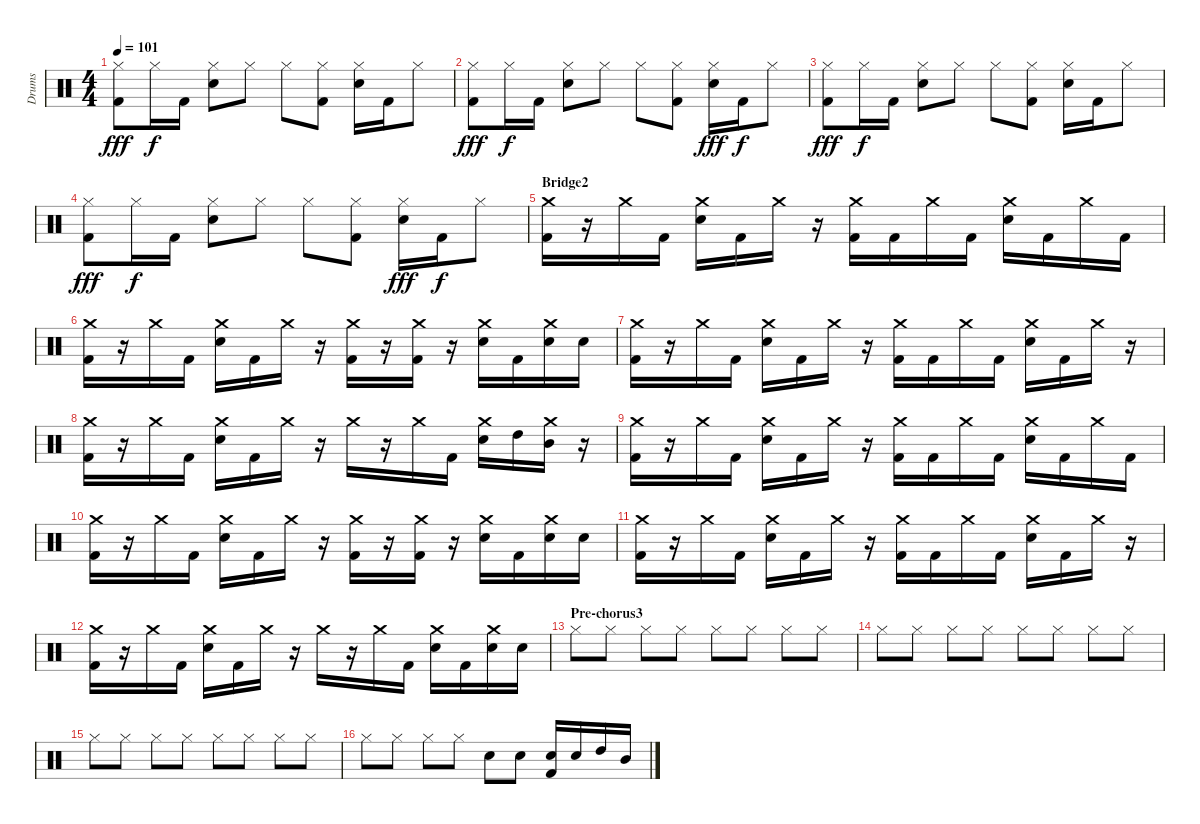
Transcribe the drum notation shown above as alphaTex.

\track ("Drums" "Drums") {instrument percussion}
\staff {score}
\articulation defaults
\ts (4 4)
\tempo 101
\clef neutral
\ks c
("Hi-Hat (closed)" "Kick (hit) 2").8{dy fff} "Hi-Hat (closed)".16{dy f} "Kick (hit) 2".16 ("Hi-Hat (closed)" "Electric Snare (hit)").8 "Hi-Hat (closed)".8 "Hi-Hat (closed)".8 ("Hi-Hat (closed)" "Kick (hit) 2").8 ("Hi-Hat (closed)" "Electric Snare (hit)").16 "Kick (hit) 2".16 "Hi-Hat (closed)".8 |
("Hi-Hat (closed)" "Kick (hit) 2").8{dy fff} "Hi-Hat (closed)".16{dy f} "Kick (hit) 2".16 ("Hi-Hat (closed)" "Electric Snare (hit)").8 "Hi-Hat (closed)".8 "Hi-Hat (closed)".8 ("Hi-Hat (closed)" "Kick (hit) 2").8 ("Hi-Hat (closed)" "Electric Snare (hit)").16{dy fff} "Kick (hit) 2".16{dy f} "Hi-Hat (closed)".8 |
("Hi-Hat (closed)" "Kick (hit) 2").8{dy fff} "Hi-Hat (closed)".16{dy f} "Kick (hit) 2".16 ("Hi-Hat (closed)" "Electric Snare (hit)").8 "Hi-Hat (closed)".8 "Hi-Hat (closed)".8 ("Hi-Hat (closed)" "Kick (hit) 2").8 ("Hi-Hat (closed)" "Electric Snare (hit)").16 "Kick (hit) 2".16 "Hi-Hat (closed)".8 |
("Hi-Hat (closed)" "Kick (hit) 2").8{dy fff} "Hi-Hat (closed)".16{dy f} "Kick (hit) 2".16 ("Hi-Hat (closed)" "Electric Snare (hit)").8 "Hi-Hat (closed)".8 "Hi-Hat (closed)".8 ("Hi-Hat (closed)" "Kick (hit) 2").8 ("Hi-Hat (closed)" "Electric Snare (hit)").16{dy fff} "Kick (hit) 2".16{dy f} "Hi-Hat (closed)".8 |
\section ("" "Bridge2")
("Crash medium (hit)" "Kick (hit) 2").16 r.16 "Crash medium (hit)".16 "Kick (hit) 2".16 ("Crash medium (hit)" "Electric Snare (hit)").16 "Kick (hit) 2".16 "Crash medium (hit)".16 r.16 ("Crash medium (hit)" "Kick (hit) 2").16 "Kick (hit) 2".16 "Crash medium (hit)".16 "Kick (hit) 2".16 ("Crash medium (hit)" "Electric Snare (hit)").16 "Kick (hit) 2".16 "Crash medium (hit)".16 "Kick (hit) 2".16 |
("Crash medium (hit)" "Kick (hit) 2").16 r.16 "Crash medium (hit)".16 "Kick (hit) 2".16 ("Crash medium (hit)" "Electric Snare (hit)").16 "Kick (hit) 2".16 "Crash medium (hit)".16 r.16 ("Crash medium (hit)" "Kick (hit) 2").16 r.16 ("Crash medium (hit)" "Kick (hit) 2").16 r.16 ("Crash medium (hit)" "Electric Snare (hit)").16 "Kick (hit) 2".16 ("Crash medium (hit)" "Electric Snare (hit)").16 "Electric Snare (hit)".16 |
("Crash medium (hit)" "Kick (hit) 2").16 r.16 "Crash medium (hit)".16 "Kick (hit) 2".16 ("Crash medium (hit)" "Electric Snare (hit)").16 "Kick (hit) 2".16 "Crash medium (hit)".16 r.16 ("Crash medium (hit)" "Kick (hit) 2").16 "Kick (hit) 2".16 "Crash medium (hit)".16 "Kick (hit) 2".16 ("Crash medium (hit)" "Electric Snare (hit)").16 "Kick (hit) 2".16 "Crash medium (hit)".16 r.16 |
("Crash medium (hit)" "Kick (hit) 2").16 r.16 "Crash medium (hit)".16 "Kick (hit) 2".16 ("Crash medium (hit)" "Electric Snare (hit)").16 "Kick (hit) 2".16 "Crash medium (hit)".16 r.16 "Crash medium (hit)".16 r.16 "Crash medium (hit)".16 "Kick (hit) 2".16 ("Crash medium (hit)" "Electric Snare (hit)").16 "High Tom (hit)".16 ("Crash medium (hit)" "Mid Tom (hit)").16 r.16 |
("Crash medium (hit)" "Kick (hit) 2").16 r.16 "Crash medium (hit)".16 "Kick (hit) 2".16 ("Crash medium (hit)" "Electric Snare (hit)").16 "Kick (hit) 2".16 "Crash medium (hit)".16 r.16 ("Crash medium (hit)" "Kick (hit) 2").16 "Kick (hit) 2".16 "Crash medium (hit)".16 "Kick (hit) 2".16 ("Crash medium (hit)" "Electric Snare (hit)").16 "Kick (hit) 2".16 "Crash medium (hit)".16 "Kick (hit) 2".16 |
("Crash medium (hit)" "Kick (hit) 2").16 r.16 "Crash medium (hit)".16 "Kick (hit) 2".16 ("Crash medium (hit)" "Electric Snare (hit)").16 "Kick (hit) 2".16 "Crash medium (hit)".16 r.16 ("Crash medium (hit)" "Kick (hit) 2").16 r.16 ("Crash medium (hit)" "Kick (hit) 2").16 r.16 ("Crash medium (hit)" "Electric Snare (hit)").16 "Kick (hit) 2".16 ("Crash medium (hit)" "Electric Snare (hit)").16 "Electric Snare (hit)".16 |
("Crash medium (hit)" "Kick (hit) 2").16 r.16 "Crash medium (hit)".16 "Kick (hit) 2".16 ("Crash medium (hit)" "Electric Snare (hit)").16 "Kick (hit) 2".16 "Crash medium (hit)".16 r.16 ("Crash medium (hit)" "Kick (hit) 2").16 "Kick (hit) 2".16 "Crash medium (hit)".16 "Kick (hit) 2".16 ("Crash medium (hit)" "Electric Snare (hit)").16 "Kick (hit) 2".16 "Crash medium (hit)".16 r.16 |
("Crash medium (hit)" "Kick (hit) 2").16 r.16 "Crash medium (hit)".16 "Kick (hit) 2".16 ("Crash medium (hit)" "Electric Snare (hit)").16 "Kick (hit) 2".16 "Crash medium (hit)".16 r.16 "Crash medium (hit)".16 r.16 "Crash medium (hit)".16 "Kick (hit) 2".16 ("Crash medium (hit)" "Electric Snare (hit)").16 "Kick (hit) 2".16 ("Crash medium (hit)" "Electric Snare (hit)").16 "Electric Snare (hit)".16 |
\section ("" "Pre-chorus3")
"Hi-Hat (closed)".8 "Hi-Hat (closed)".8 "Hi-Hat (closed)".8 "Hi-Hat (closed)".8 "Hi-Hat (closed)".8 "Hi-Hat (closed)".8 "Hi-Hat (closed)".8 "Hi-Hat (closed)".8 |
"Hi-Hat (closed)".8 "Hi-Hat (closed)".8 "Hi-Hat (closed)".8 "Hi-Hat (closed)".8 "Hi-Hat (closed)".8 "Hi-Hat (closed)".8 "Hi-Hat (closed)".8 "Hi-Hat (closed)".8 |
"Hi-Hat (closed)".8 "Hi-Hat (closed)".8 "Hi-Hat (closed)".8 "Hi-Hat (closed)".8 "Hi-Hat (closed)".8 "Hi-Hat (closed)".8 "Hi-Hat (closed)".8 "Hi-Hat (closed)".8 |
"Hi-Hat (closed)".8 "Hi-Hat (closed)".8 "Hi-Hat (closed)".8 "Hi-Hat (closed)".8 "Electric Snare (hit)".8 "Electric Snare (hit)".8 ("Electric Snare (hit)" "Kick (hit) 2").16 "Electric Snare (hit)".16 "High Tom (hit)".16 "Mid Tom (hit)".16
